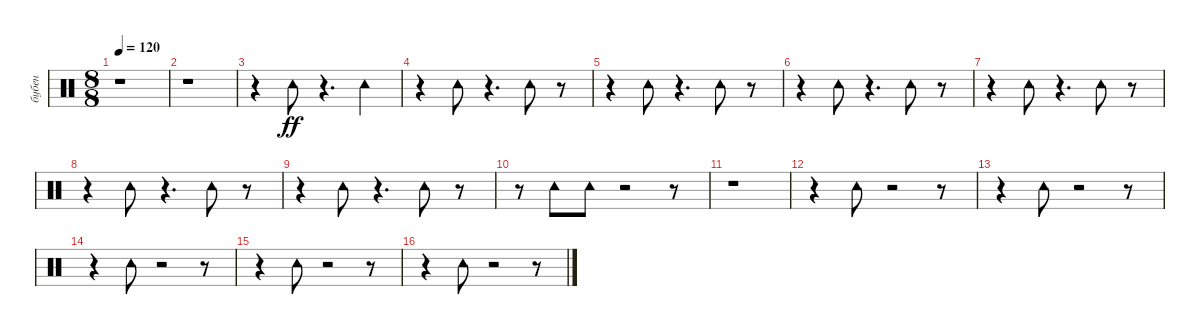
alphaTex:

\track ("бубен" "бубен") {instrument percussion}
\staff {score}
\articulation defaults
\ts (8 8)
\tempo 120
\clef neutral
\ks c
r.1{dy ff} |
r.1 |
r.4 "Tambourine (hit)".8 r.4{d} "Tambourine (hit)".4 |
r.4 "Tambourine (hit)".8 r.4{d} "Tambourine (hit)".8 r.8 |
r.4 "Tambourine (hit)".8 r.4{d} "Tambourine (hit)".8 r.8 |
r.4 "Tambourine (hit)".8 r.4{d} "Tambourine (hit)".8 r.8 |
r.4 "Tambourine (hit)".8 r.4{d} "Tambourine (hit)".8 r.8 |
r.4 "Tambourine (hit)".8 r.4{d} "Tambourine (hit)".8 r.8 |
r.4 "Tambourine (hit)".8 r.4{d} "Tambourine (hit)".8 r.8 |
r.8 "Tambourine (hit)".8 "Tambourine (hit)".8 r.2 r.8 |
r.1 |
r.4 "Tambourine (hit)".8 r.2 r.8 |
r.4 "Tambourine (hit)".8 r.2 r.8 |
r.4 "Tambourine (hit)".8 r.2 r.8 |
r.4 "Tambourine (hit)".8 r.2 r.8 |
r.4 "Tambourine (hit)".8 r.2 r.8
